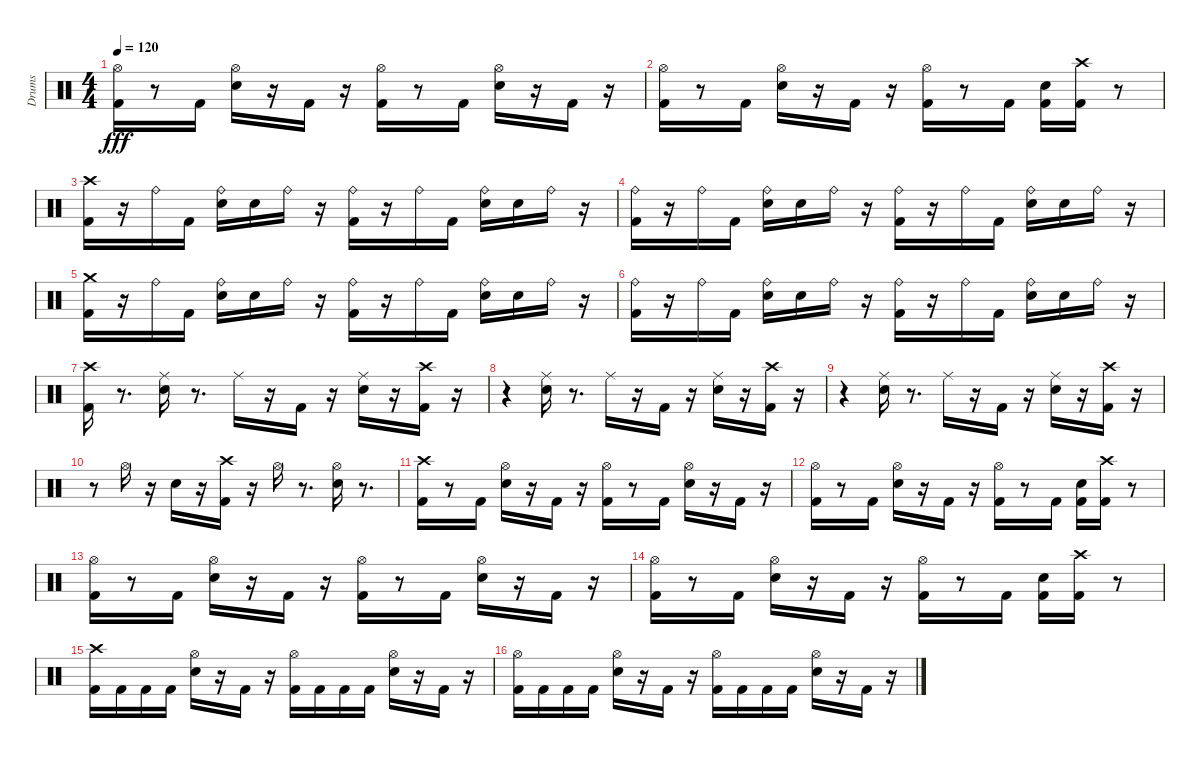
\track ("Drums" "Drums") {instrument percussion}
\staff {score}
\articulation defaults
\ts (4 4)
\tempo 120
\clef neutral
\ks c
("Kick (hit) 2" "Hi-Hat (open)").16{dy fff} r.8 "Kick (hit) 2".16 ("Electric Snare (hit)" "Hi-Hat (open)").16 r.16 "Kick (hit) 2".16 r.16 ("Kick (hit) 2" "Hi-Hat (open)").16 r.8 "Kick (hit) 2".16 ("Electric Snare (hit)" "Hi-Hat (open)").16 r.16 "Kick (hit) 2".16 r.16 |
("Hi-Hat (open)" "Kick (hit) 2").16 r.8 "Kick (hit) 2".16 ("Hi-Hat (open)" "Electric Snare (hit)").16 r.16 "Kick (hit) 2".16 r.16 ("Hi-Hat (open)" "Kick (hit) 2").16 r.8 "Kick (hit) 2".16 ("Kick (hit) 2" "Electric Snare (hit)").16 ("Crash high (hit)" "Kick (hit) 2").16 r.8 |
("Kick (hit) 2" "Crash high (hit)").16 r.16 "Ride (bell)".16 "Kick (hit) 2".16 ("Electric Snare (hit)" "Ride (bell)").16 "Electric Snare (hit)".16 "Ride (bell)".16 r.16 ("Kick (hit) 2" "Ride (bell)").16 r.16 "Ride (bell)".16 "Kick (hit) 2".16 ("Electric Snare (hit)" "Ride (bell)").16 "Electric Snare (hit)".16 "Ride (bell)".16 r.16 |
("Ride (bell)" "Kick (hit) 2").16 r.16 "Ride (bell)".16 "Kick (hit) 2".16 ("Ride (bell)" "Electric Snare (hit)").16 "Electric Snare (hit)".16 "Ride (bell)".16 r.16 ("Ride (bell)" "Kick (hit) 2").16 r.16 "Ride (bell)".16 "Kick (hit) 2".16 ("Ride (bell)" "Electric Snare (hit)").16 "Electric Snare (hit)".16 "Ride (bell)".16 r.16 |
("Crash medium (hit)" "Kick (hit) 2").16 r.16 "Ride (bell)".16 "Kick (hit) 2".16 ("Ride (bell)" "Electric Snare (hit)").16 "Electric Snare (hit)".16 "Ride (bell)".16 r.16 ("Ride (bell)" "Kick (hit) 2").16 r.16 "Ride (bell)".16 "Kick (hit) 2".16 ("Ride (bell)" "Electric Snare (hit)").16 "Electric Snare (hit)".16 "Ride (bell)".16 r.16 |
("Kick (hit) 2" "Ride (bell)").16 r.16 "Ride (bell)".16 "Kick (hit) 2".16 ("Electric Snare (hit)" "Ride (bell)").16 "Electric Snare (hit)".16 "Ride (bell)".16 r.16 ("Kick (hit) 2" "Ride (bell)").16 r.16 "Ride (bell)".16 "Kick (hit) 2".16 ("Electric Snare (hit)" "Ride (bell)").16 "Electric Snare (hit)".16 "Ride (bell)".16 r.16 |
("Kick (hit) 2" "Crash high (hit)").16 r.8{d} ("Electric Snare (hit)" "Ride (middle)").16 r.8{d} "Ride (middle)".16 r.16 "Kick (hit) 2".16 r.16 ("Electric Snare (hit)" "Ride (middle)").16 r.16 ("Kick (hit) 2" "Crash high (hit)").16 r.16 |
r.4 ("Ride (middle)" "Electric Snare (hit)").16 r.8{d} "Ride (middle)".16 r.16 "Kick (hit) 2".16 r.16 ("Ride (middle)" "Electric Snare (hit)").16 r.16 ("Crash high (hit)" "Kick (hit) 2").16 r.16 |
r.4 ("Electric Snare (hit)" "Ride (middle)").16 r.8{d} "Ride (middle)".16 r.16 "Kick (hit) 2".16 r.16 ("Electric Snare (hit)" "Ride (middle)").16 r.16 ("Kick (hit) 2" "Crash high (hit)").16 r.16 |
r.8 "Hi-Hat (open)".16 r.16 "Electric Snare (hit)".16 r.16 ("Crash high (hit)" "Kick (hit) 2").16 r.16 "Hi-Hat (open)".16 r.8{d} ("Electric Snare (hit)" "Hi-Hat (open)").16 r.8{d} |
("Crash high (hit)" "Kick (hit) 2").16 r.8 "Kick (hit) 2".16 ("Hi-Hat (open)" "Electric Snare (hit)").16 r.16 "Kick (hit) 2".16 r.16 ("Hi-Hat (open)" "Kick (hit) 2").16 r.8 "Kick (hit) 2".16 ("Hi-Hat (open)" "Electric Snare (hit)").16 r.16 "Kick (hit) 2".16 r.16 |
("Kick (hit) 2" "Hi-Hat (open)").16 r.8 "Kick (hit) 2".16 ("Electric Snare (hit)" "Hi-Hat (open)").16 r.16 "Kick (hit) 2".16 r.16 ("Kick (hit) 2" "Hi-Hat (open)").16 r.8 "Kick (hit) 2".16 ("Electric Snare (hit)" "Kick (hit) 2").16 ("Kick (hit) 2" "Crash high (hit)").16 r.8 |
("Hi-Hat (open)" "Kick (hit) 2").16 r.8 "Kick (hit) 2".16 ("Hi-Hat (open)" "Electric Snare (hit)").16 r.16 "Kick (hit) 2".16 r.16 ("Hi-Hat (open)" "Kick (hit) 2").16 r.8 "Kick (hit) 2".16 ("Hi-Hat (open)" "Electric Snare (hit)").16 r.16 "Kick (hit) 2".16 r.16 |
("Kick (hit) 2" "Hi-Hat (open)").16 r.8 "Kick (hit) 2".16 ("Electric Snare (hit)" "Hi-Hat (open)").16 r.16 "Kick (hit) 2".16 r.16 ("Kick (hit) 2" "Hi-Hat (open)").16 r.8 "Kick (hit) 2".16 ("Electric Snare (hit)" "Kick (hit) 2").16 ("Kick (hit) 2" "Crash high (hit)").16 r.8 |
("Crash high (hit)" "Kick (hit) 2").16 "Kick (hit) 2".16 "Kick (hit) 2".16 "Kick (hit) 2".16 ("Electric Snare (hit)" "Hi-Hat (open)").16 r.16 "Kick (hit) 2".16 r.16 ("Kick (hit) 2" "Hi-Hat (open)").16 "Kick (hit) 2".16 "Kick (hit) 2".16 "Kick (hit) 2".16 ("Electric Snare (hit)" "Hi-Hat (open)").16 r.16 "Kick (hit) 2".16 r.16 |
("Hi-Hat (open)" "Kick (hit) 2").16 "Kick (hit) 2".16 "Kick (hit) 2".16 "Kick (hit) 2".16 ("Hi-Hat (open)" "Electric Snare (hit)").16 r.16 "Kick (hit) 2".16 r.16 ("Hi-Hat (open)" "Kick (hit) 2").16 "Kick (hit) 2".16 "Kick (hit) 2".16 "Kick (hit) 2".16 ("Hi-Hat (open)" "Electric Snare (hit)").16 r.16 "Kick (hit) 2".16 r.16
